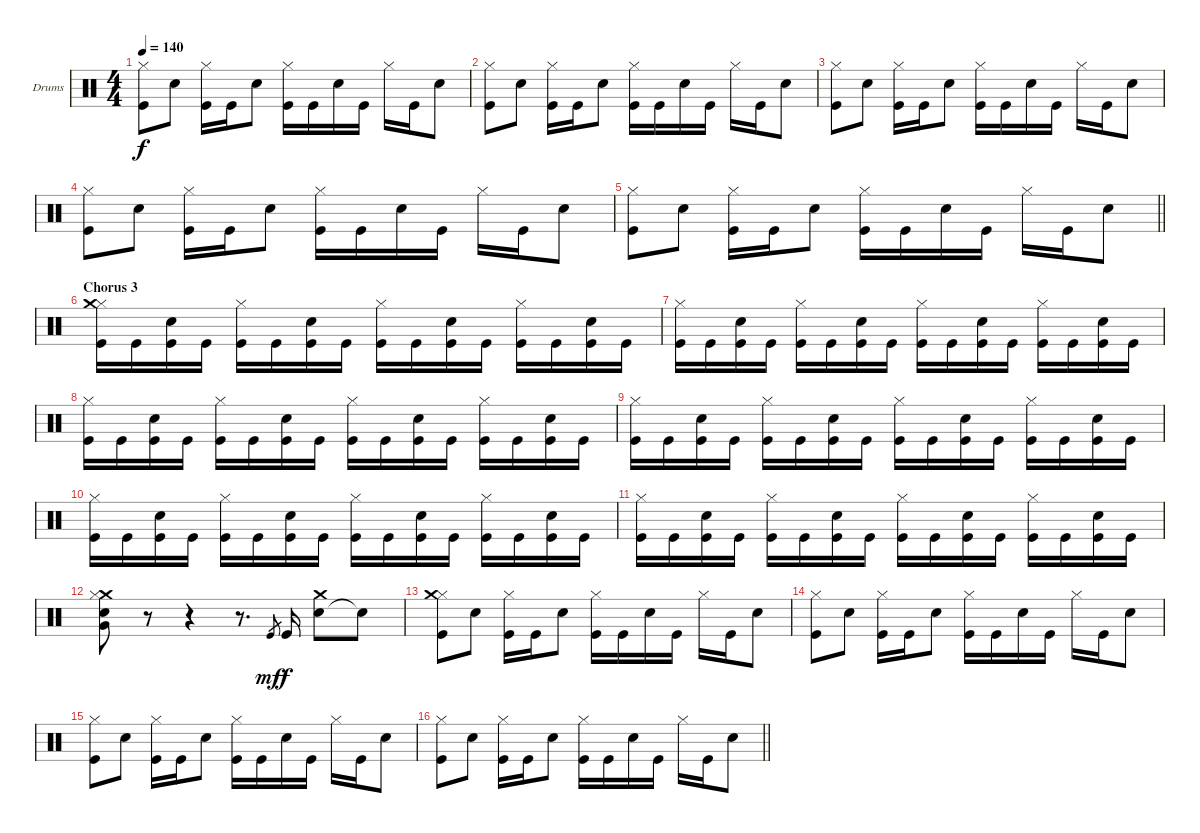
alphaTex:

\bracketExtendMode groupsimilarinstruments
\firstSystemTrackNameOrientation horizontal
\otherSystemsTrackNameOrientation horizontal
\track ("Drumkit" "Drums") {instrument percussion}
\staff {score}
\articulation defaults
\ts (4 4)
\tempo 140
\clef neutral
\ks c
("Hi-Hat (closed)" "Kick (hit)").8{dy f} "Snare (hit) 2".8 ("Hi-Hat (closed)" "Kick (hit)").16 "Kick (hit)".16 "Snare (hit) 2".8 ("Hi-Hat (closed)" "Kick (hit)").16 "Kick (hit)".16 "Snare (hit) 2".16 "Kick (hit)".16 "Hi-Hat (closed)".16 "Kick (hit)".16 "Snare (hit) 2".8 |
("Hi-Hat (closed)" "Kick (hit)").8 "Snare (hit) 2".8 ("Hi-Hat (closed)" "Kick (hit)").16 "Kick (hit)".16 "Snare (hit) 2".8 ("Hi-Hat (closed)" "Kick (hit)").16 "Kick (hit)".16 "Snare (hit) 2".16 "Kick (hit)".16 "Hi-Hat (closed)".16 "Kick (hit)".16 "Snare (hit) 2".8 |
("Hi-Hat (closed)" "Kick (hit)").8 "Snare (hit) 2".8 ("Hi-Hat (closed)" "Kick (hit)").16 "Kick (hit)".16 "Snare (hit) 2".8 ("Hi-Hat (closed)" "Kick (hit)").16 "Kick (hit)".16 "Snare (hit) 2".16 "Kick (hit)".16 "Hi-Hat (closed)".16 "Kick (hit)".16 "Snare (hit) 2".8 |
("Hi-Hat (closed)" "Kick (hit)").8 "Snare (hit) 2".8 ("Hi-Hat (closed)" "Kick (hit)").16 "Kick (hit)".16 "Snare (hit) 2".8 ("Hi-Hat (closed)" "Kick (hit)").16 "Kick (hit)".16 "Snare (hit) 2".16 "Kick (hit)".16 "Hi-Hat (closed)".16 "Kick (hit)".16 "Snare (hit) 2".8 |
\barLineRight lightlight
("Hi-Hat (closed)" "Kick (hit)").8 "Snare (hit) 2".8 ("Hi-Hat (closed)" "Kick (hit)").16 "Kick (hit)".16 "Snare (hit) 2".8 ("Hi-Hat (closed)" "Kick (hit)").16 "Kick (hit)".16 "Snare (hit) 2".16 "Kick (hit)".16 "Hi-Hat (closed)".16 "Kick (hit)".16 "Snare (hit) 2".8 |
\section ("" "Chorus 3")
("Hi-Hat (closed)" "Kick (hit)" "Crash medium (hit)").16 "Kick (hit)".16 ("Snare (hit) 2" "Kick (hit)").16 "Kick (hit)".16 ("Hi-Hat (closed)" "Kick (hit)").16 "Kick (hit)".16 ("Snare (hit) 2" "Kick (hit)").16 "Kick (hit)".16 ("Hi-Hat (closed)" "Kick (hit)").16 "Kick (hit)".16 ("Snare (hit) 2" "Kick (hit)").16 "Kick (hit)".16 ("Hi-Hat (closed)" "Kick (hit)").16 "Kick (hit)".16 ("Snare (hit) 2" "Kick (hit)").16 "Kick (hit)".16 |
("Hi-Hat (closed)" "Kick (hit)").16 "Kick (hit)".16 ("Snare (hit) 2" "Kick (hit)").16 "Kick (hit)".16 ("Hi-Hat (closed)" "Kick (hit)").16 "Kick (hit)".16 ("Snare (hit) 2" "Kick (hit)").16 "Kick (hit)".16 ("Hi-Hat (closed)" "Kick (hit)").16 "Kick (hit)".16 ("Snare (hit) 2" "Kick (hit)").16 "Kick (hit)".16 ("Hi-Hat (closed)" "Kick (hit)").16 "Kick (hit)".16 ("Snare (hit) 2" "Kick (hit)").16 "Kick (hit)".16 |
("Hi-Hat (closed)" "Kick (hit)").16 "Kick (hit)".16 ("Snare (hit) 2" "Kick (hit)").16 "Kick (hit)".16 ("Hi-Hat (closed)" "Kick (hit)").16 "Kick (hit)".16 ("Snare (hit) 2" "Kick (hit)").16 "Kick (hit)".16 ("Hi-Hat (closed)" "Kick (hit)").16 "Kick (hit)".16 ("Snare (hit) 2" "Kick (hit)").16 "Kick (hit)".16 ("Hi-Hat (closed)" "Kick (hit)").16 "Kick (hit)".16 ("Snare (hit) 2" "Kick (hit)").16 "Kick (hit)".16 |
("Hi-Hat (closed)" "Kick (hit)").16 "Kick (hit)".16 ("Snare (hit) 2" "Kick (hit)").16 "Kick (hit)".16 ("Hi-Hat (closed)" "Kick (hit)").16 "Kick (hit)".16 ("Snare (hit) 2" "Kick (hit)").16 "Kick (hit)".16 ("Hi-Hat (closed)" "Kick (hit)").16 "Kick (hit)".16 ("Snare (hit) 2" "Kick (hit)").16 "Kick (hit)".16 ("Hi-Hat (closed)" "Kick (hit)").16 "Kick (hit)".16 ("Snare (hit) 2" "Kick (hit)").16 "Kick (hit)".16 |
("Hi-Hat (closed)" "Kick (hit)").16 "Kick (hit)".16 ("Snare (hit) 2" "Kick (hit)").16 "Kick (hit)".16 ("Hi-Hat (closed)" "Kick (hit)").16 "Kick (hit)".16 ("Snare (hit) 2" "Kick (hit)").16 "Kick (hit)".16 ("Hi-Hat (closed)" "Kick (hit)").16 "Kick (hit)".16 ("Snare (hit) 2" "Kick (hit)").16 "Kick (hit)".16 ("Hi-Hat (closed)" "Kick (hit)").16 "Kick (hit)".16 ("Snare (hit) 2" "Kick (hit)").16 "Kick (hit)".16 |
("Hi-Hat (closed)" "Kick (hit)").16 "Kick (hit)".16 ("Snare (hit) 2" "Kick (hit)").16 "Kick (hit)".16 ("Hi-Hat (closed)" "Kick (hit)").16 "Kick (hit)".16 ("Snare (hit) 2" "Kick (hit)").16 "Kick (hit)".16 ("Hi-Hat (closed)" "Kick (hit)").16 "Kick (hit)".16 ("Snare (hit) 2" "Kick (hit)").16 "Kick (hit)".16 ("Hi-Hat (closed)" "Kick (hit)").16 "Kick (hit)".16 ("Snare (hit) 2" "Kick (hit)").16 "Kick (hit)".16 |
("Crash medium (hit)" "Snare (hit) 2" "Hi-Hat (closed)" "Very Low Tom (hit)").8 r.8 r.4 r.8{d} "Kick (hit)".8{gr dy mf} "Kick (hit)".16{dy f} ("Snare (hit) 2" "Crash medium (hit)").8 "Snare (hit) 2"{t}.8 |
("Hi-Hat (closed)" "Kick (hit)" "Crash medium (hit)").8 "Snare (hit) 2".8 ("Hi-Hat (closed)" "Kick (hit)").16 "Kick (hit)".16 "Snare (hit) 2".8 ("Hi-Hat (closed)" "Kick (hit)").16 "Kick (hit)".16 "Snare (hit) 2".16 "Kick (hit)".16 "Hi-Hat (closed)".16 "Kick (hit)".16 "Snare (hit) 2".8 |
("Hi-Hat (closed)" "Kick (hit)").8 "Snare (hit) 2".8 ("Hi-Hat (closed)" "Kick (hit)").16 "Kick (hit)".16 "Snare (hit) 2".8 ("Hi-Hat (closed)" "Kick (hit)").16 "Kick (hit)".16 "Snare (hit) 2".16 "Kick (hit)".16 "Hi-Hat (closed)".16 "Kick (hit)".16 "Snare (hit) 2".8 |
("Hi-Hat (closed)" "Kick (hit)").8 "Snare (hit) 2".8 ("Hi-Hat (closed)" "Kick (hit)").16 "Kick (hit)".16 "Snare (hit) 2".8 ("Hi-Hat (closed)" "Kick (hit)").16 "Kick (hit)".16 "Snare (hit) 2".16 "Kick (hit)".16 "Hi-Hat (closed)".16 "Kick (hit)".16 "Snare (hit) 2".8 |
\barLineRight lightlight
("Hi-Hat (closed)" "Kick (hit)").8 "Snare (hit) 2".8 ("Hi-Hat (closed)" "Kick (hit)").16 "Kick (hit)".16 "Snare (hit) 2".8 ("Hi-Hat (closed)" "Kick (hit)").16 "Kick (hit)".16 "Snare (hit) 2".16 "Kick (hit)".16 "Hi-Hat (closed)".16 "Kick (hit)".16 "Snare (hit) 2".8
